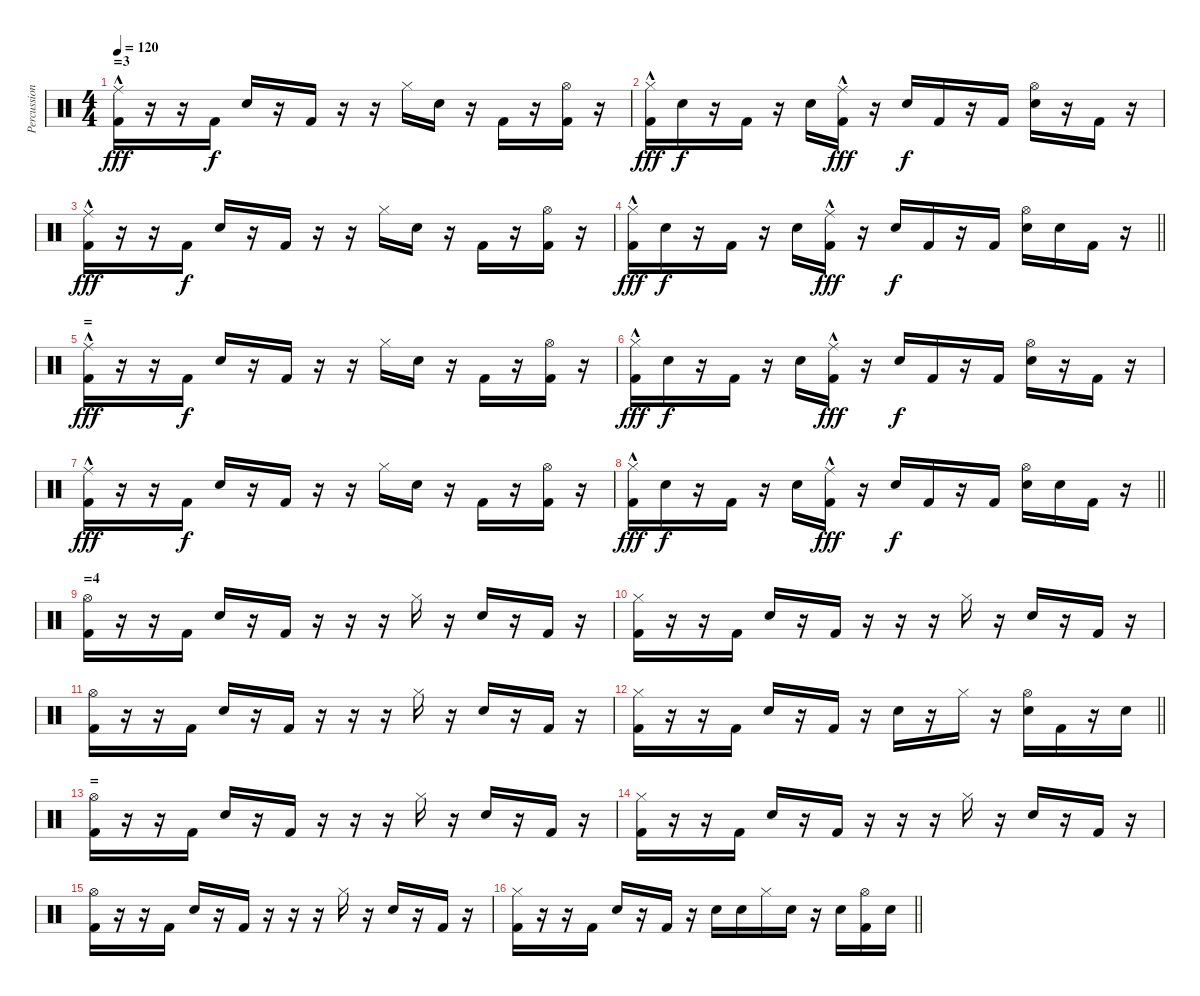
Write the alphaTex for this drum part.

\track ("Percussion" "Percussion") {instrument percussion}
\staff {score}
\articulation defaults
\ts (4 4)
\section ("" "=3")
\tempo 120
\clef neutral
\ks c
("Kick (hit) 2" "Ride (middle)"{hac}).16{dy fff} r.16 r.16 "Kick (hit) 2".16{dy f} "Electric Snare (hit)".16 r.16 "Kick (hit) 2".16 r.16 r.16 "Hi-Hat (closed)".16 "Electric Snare (hit)".16 r.16 "Kick (hit) 2".16 r.16 ("Kick (hit) 2" "Hi-Hat (open)").16 r.16 |
("Kick (hit) 2" "Hi-Hat (closed)"{hac}).16{dy fff} "Electric Snare (hit)".16{dy f} r.16 "Kick (hit) 2".16 r.16 "Electric Snare (hit)".16 ("Kick (hit) 2" "Ride (middle)"{hac}).16{dy fff} r.16 "Electric Snare (hit)".16{dy f} "Kick (hit) 2".16 r.16 "Kick (hit) 2".16 ("Electric Snare (hit)" "Hi-Hat (open)").16 r.16 "Kick (hit) 2".16 r.16 |
("Kick (hit) 2" "Ride (middle)"{hac}).16{dy fff} r.16 r.16 "Kick (hit) 2".16{dy f} "Electric Snare (hit)".16 r.16 "Kick (hit) 2".16 r.16 r.16 "Hi-Hat (closed)".16 "Electric Snare (hit)".16 r.16 "Kick (hit) 2".16 r.16 ("Kick (hit) 2" "Hi-Hat (open)").16 r.16 |
\barLineRight lightlight
("Kick (hit) 2" "Hi-Hat (closed)"{hac}).16{dy fff} "Electric Snare (hit)".16{dy f} r.16 "Kick (hit) 2".16 r.16 "Electric Snare (hit)".16 ("Kick (hit) 2" "Ride (middle)"{hac}).16{dy fff} r.16 "Electric Snare (hit)".16{dy f} "Kick (hit) 2".16 r.16 "Kick (hit) 2".16 ("Electric Snare (hit)" "Hi-Hat (open)").16 "Electric Snare (hit)".16 "Kick (hit) 2".16 r.16 |
\section ("" "=")
("Kick (hit) 2" "Ride (middle)"{hac}).16{dy fff} r.16 r.16 "Kick (hit) 2".16{dy f} "Electric Snare (hit)".16 r.16 "Kick (hit) 2".16 r.16 r.16 "Hi-Hat (closed)".16 "Electric Snare (hit)".16 r.16 "Kick (hit) 2".16 r.16 ("Kick (hit) 2" "Hi-Hat (open)").16 r.16 |
("Kick (hit) 2" "Hi-Hat (closed)"{hac}).16{dy fff} "Electric Snare (hit)".16{dy f} r.16 "Kick (hit) 2".16 r.16 "Electric Snare (hit)".16 ("Kick (hit) 2" "Ride (middle)"{hac}).16{dy fff} r.16 "Electric Snare (hit)".16{dy f} "Kick (hit) 2".16 r.16 "Kick (hit) 2".16 ("Electric Snare (hit)" "Hi-Hat (open)").16 r.16 "Kick (hit) 2".16 r.16 |
("Kick (hit) 2" "Ride (middle)"{hac}).16{dy fff} r.16 r.16 "Kick (hit) 2".16{dy f} "Electric Snare (hit)".16 r.16 "Kick (hit) 2".16 r.16 r.16 "Hi-Hat (closed)".16 "Electric Snare (hit)".16 r.16 "Kick (hit) 2".16 r.16 ("Kick (hit) 2" "Hi-Hat (open)").16 r.16 |
\barLineRight lightlight
("Kick (hit) 2" "Hi-Hat (closed)"{hac}).16{dy fff} "Electric Snare (hit)".16{dy f} r.16 "Kick (hit) 2".16 r.16 "Electric Snare (hit)".16 ("Kick (hit) 2" "Ride (middle)"{hac}).16{dy fff} r.16 "Electric Snare (hit)".16{dy f} "Kick (hit) 2".16 r.16 "Kick (hit) 2".16 ("Electric Snare (hit)" "Hi-Hat (open)").16 "Electric Snare (hit)".16 "Kick (hit) 2".16 r.16 |
\section ("" "=4")
("Kick (hit) 2" "Hi-Hat (open)").16 r.16 r.16 "Kick (hit) 2".16 "Electric Snare (hit)".16 r.16 "Kick (hit) 2".16 r.16 r.16 r.16 "Hi-Hat (closed)".16 r.16 "Electric Snare (hit)".16 r.16 "Kick (hit) 2".16 r.16 |
("Kick (hit) 2" "Hi-Hat (closed)").16 r.16 r.16 "Kick (hit) 2".16 "Electric Snare (hit)".16 r.16 "Kick (hit) 2".16 r.16 r.16 r.16 "Hi-Hat (closed)".16 r.16 "Electric Snare (hit)".16 r.16 "Kick (hit) 2".16 r.16 |
("Kick (hit) 2" "Hi-Hat (open)").16 r.16 r.16 "Kick (hit) 2".16 "Electric Snare (hit)".16 r.16 "Kick (hit) 2".16 r.16 r.16 r.16 "Hi-Hat (closed)".16 r.16 "Electric Snare (hit)".16 r.16 "Kick (hit) 2".16 r.16 |
\barLineRight lightlight
("Kick (hit) 2" "Hi-Hat (closed)").16 r.16 r.16 "Kick (hit) 2".16 "Electric Snare (hit)".16 r.16 "Kick (hit) 2".16 r.16 "Electric Snare (hit)".16 r.16 "Hi-Hat (closed)".16 r.16 ("Electric Snare (hit)" "Hi-Hat (open)").16 "Kick (hit) 2".16 r.16 "Electric Snare (hit)".16 |
\section ("" "=")
("Kick (hit) 2" "Hi-Hat (open)").16 r.16 r.16 "Kick (hit) 2".16 "Electric Snare (hit)".16 r.16 "Kick (hit) 2".16 r.16 r.16 r.16 "Hi-Hat (closed)".16 r.16 "Electric Snare (hit)".16 r.16 "Kick (hit) 2".16 r.16 |
("Kick (hit) 2" "Hi-Hat (closed)").16 r.16 r.16 "Kick (hit) 2".16 "Electric Snare (hit)".16 r.16 "Kick (hit) 2".16 r.16 r.16 r.16 "Hi-Hat (closed)".16 r.16 "Electric Snare (hit)".16 r.16 "Kick (hit) 2".16 r.16 |
("Kick (hit) 2" "Hi-Hat (open)").16 r.16 r.16 "Kick (hit) 2".16 "Electric Snare (hit)".16 r.16 "Kick (hit) 2".16 r.16 r.16 r.16 "Hi-Hat (closed)".16 r.16 "Electric Snare (hit)".16 r.16 "Kick (hit) 2".16 r.16 |
\barLineRight lightlight
("Kick (hit) 2" "Hi-Hat (closed)").16 r.16 r.16 "Kick (hit) 2".16 "Electric Snare (hit)".16 r.16 "Kick (hit) 2".16 r.16 "Electric Snare (hit)".16 "Electric Snare (hit)".16 "Hi-Hat (closed)".16 "Electric Snare (hit)".16 r.16 "Electric Snare (hit)".16 ("Kick (hit) 2" "Hi-Hat (open)").16 "Electric Snare (hit)".16
